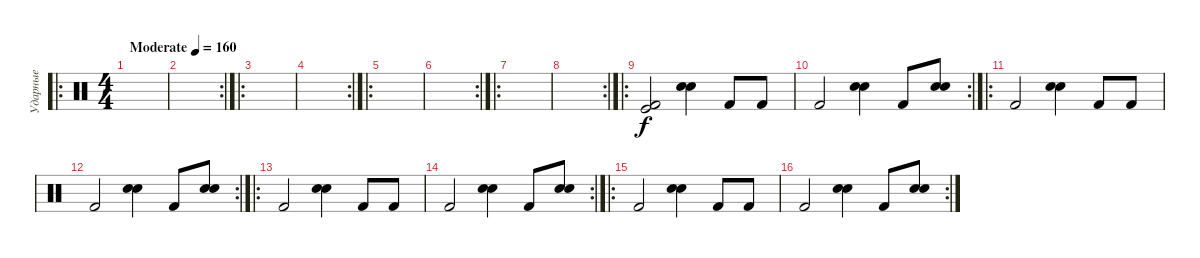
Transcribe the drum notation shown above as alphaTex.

\track ("Ударные" "Ударные") {instrument percussion}
\staff {score}
\articulation defaults
\ro
\ts (4 4)
\tempo (160 "Moderate")
\clef neutral
\ks c
|
\rc 2
|
\ro
|
\rc 2
|
\ro
|
\rc 2
|
\ro
|
\rc 2
|
\ro
("Kick (hit) 2" "Kick (hit)").2 ("Electric Snare (hit)" "Snare (hit) 2").4 "Kick (hit) 2".8 "Kick (hit) 2".8 |
\rc 2 "Kick (hit) 2".2
("Electric Snare (hit)" "Snare (hit) 2").4 "Kick (hit) 2".8 ("Electric Snare (hit)" "Snare (hit) 2").8 |
\ro "Kick (hit) 2".2
("Electric Snare (hit)" "Snare (hit) 2").4 "Kick (hit) 2".8 "Kick (hit) 2".8 |
\rc 2 "Kick (hit) 2".2
("Electric Snare (hit)" "Snare (hit) 2").4 "Kick (hit) 2".8 ("Electric Snare (hit)" "Snare (hit) 2").8 |
\ro "Kick (hit) 2".2
("Electric Snare (hit)" "Snare (hit) 2").4 "Kick (hit) 2".8 "Kick (hit) 2".8 |
\rc 2 "Kick (hit) 2".2
("Electric Snare (hit)" "Snare (hit) 2").4 "Kick (hit) 2".8 ("Electric Snare (hit)" "Snare (hit) 2").8 |
\ro "Kick (hit) 2".2
("Electric Snare (hit)" "Snare (hit) 2").4 "Kick (hit) 2".8 "Kick (hit) 2".8 |
\rc 2 "Kick (hit) 2".2
("Electric Snare (hit)" "Snare (hit) 2").4 "Kick (hit) 2".8 ("Electric Snare (hit)" "Snare (hit) 2").8
